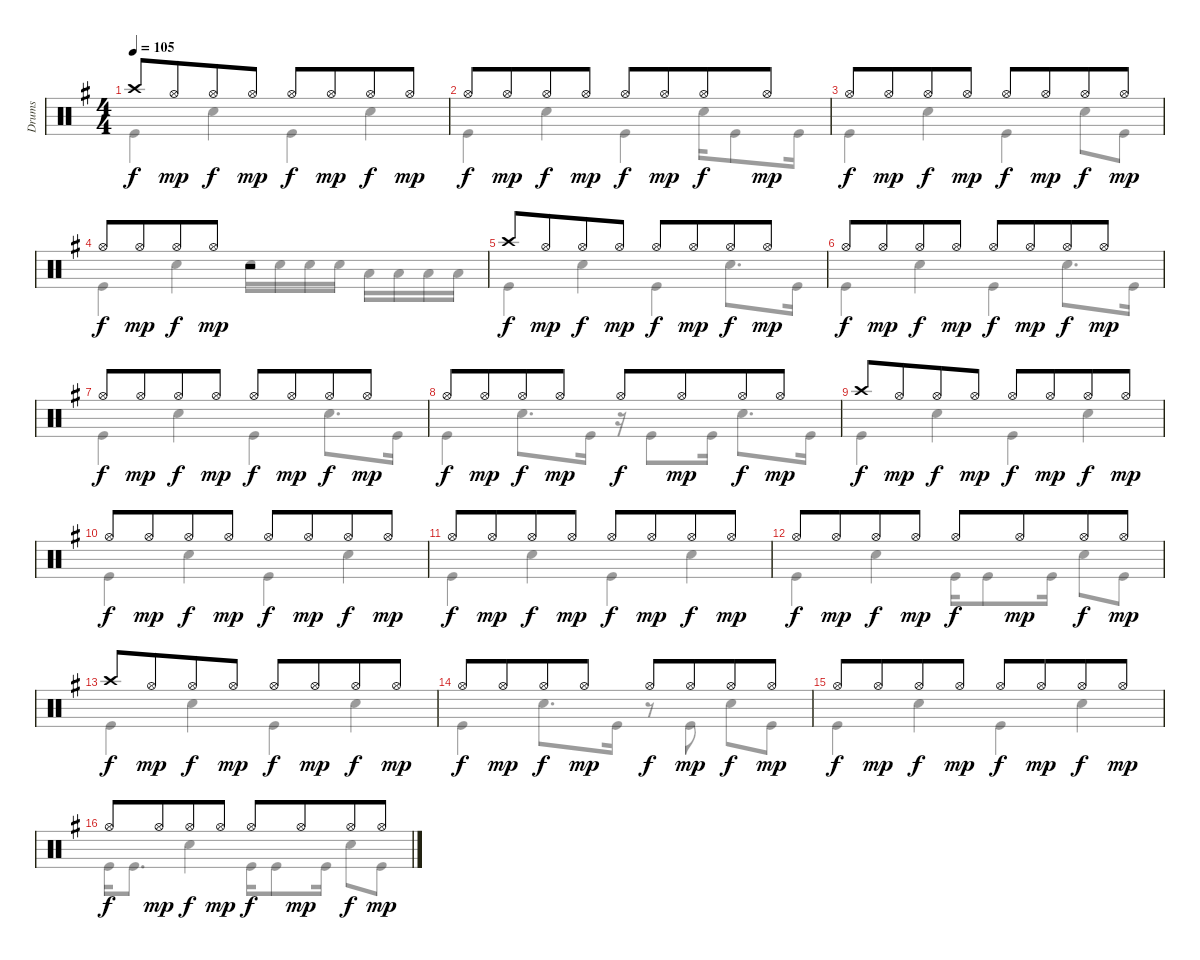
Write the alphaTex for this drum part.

\track ("Drums" "Drums") {instrument percussion}
\staff {score}
\articulation defaults
\voice
\ts (4 4)
\tempo 105
\clef neutral
\ks eminor "Crash high (hit)".8{dy f} "Hi-Hat (open)".8{dy mp beam merge} "Hi-Hat (open)".8{dy f} "Hi-Hat (open)".8{dy mp} "Hi-Hat (open)".8{dy f} "Hi-Hat (open)".8{dy mp beam merge} "Hi-Hat (open)".8{dy f} "Hi-Hat (open)".8{dy mp}
|
"Hi-Hat (open)".8{dy f} "Hi-Hat (open)".8{dy mp beam merge} "Hi-Hat (open)".8{dy f} "Hi-Hat (open)".8{dy mp} "Hi-Hat (open)".8{dy f} "Hi-Hat (open)".8{dy mp beam merge} "Hi-Hat (open)".8{dy f} "Hi-Hat (open)".8{dy mp} |
"Hi-Hat (open)".8{dy f} "Hi-Hat (open)".8{dy mp beam merge} "Hi-Hat (open)".8{dy f} "Hi-Hat (open)".8{dy mp} "Hi-Hat (open)".8{dy f} "Hi-Hat (open)".8{dy mp beam merge} "Hi-Hat (open)".8{dy f} "Hi-Hat (open)".8{dy mp} |
"Hi-Hat (open)".8{dy f} "Hi-Hat (open)".8{dy mp beam merge} "Hi-Hat (open)".8{dy f} "Hi-Hat (open)".8{dy mp} r.2 |
"Crash high (hit)".8{dy f} "Hi-Hat (open)".8{dy mp beam merge} "Hi-Hat (open)".8{dy f} "Hi-Hat (open)".8{dy mp} "Hi-Hat (open)".8{dy f} "Hi-Hat (open)".8{dy mp beam merge} "Hi-Hat (open)".8{dy f} "Hi-Hat (open)".8{dy mp} |
"Hi-Hat (open)".8{dy f} "Hi-Hat (open)".8{dy mp beam merge} "Hi-Hat (open)".8{dy f} "Hi-Hat (open)".8{dy mp} "Hi-Hat (open)".8{dy f} "Hi-Hat (open)".8{dy mp beam merge} "Hi-Hat (open)".8{dy f} "Hi-Hat (open)".8{dy mp} |
"Hi-Hat (open)".8{dy f} "Hi-Hat (open)".8{dy mp beam merge} "Hi-Hat (open)".8{dy f} "Hi-Hat (open)".8{dy mp} "Hi-Hat (open)".8{dy f} "Hi-Hat (open)".8{dy mp beam merge} "Hi-Hat (open)".8{dy f} "Hi-Hat (open)".8{dy mp} |
"Hi-Hat (open)".8{dy f} "Hi-Hat (open)".8{dy mp beam merge} "Hi-Hat (open)".8{dy f} "Hi-Hat (open)".8{dy mp} "Hi-Hat (open)".8{dy f} "Hi-Hat (open)".8{dy mp beam merge} "Hi-Hat (open)".8{dy f} "Hi-Hat (open)".8{dy mp} |
"Crash high (hit)".8{dy f} "Hi-Hat (open)".8{dy mp beam merge} "Hi-Hat (open)".8{dy f} "Hi-Hat (open)".8{dy mp} "Hi-Hat (open)".8{dy f} "Hi-Hat (open)".8{dy mp beam merge} "Hi-Hat (open)".8{dy f} "Hi-Hat (open)".8{dy mp} |
"Hi-Hat (open)".8{dy f} "Hi-Hat (open)".8{dy mp beam merge} "Hi-Hat (open)".8{dy f} "Hi-Hat (open)".8{dy mp} "Hi-Hat (open)".8{dy f} "Hi-Hat (open)".8{dy mp beam merge} "Hi-Hat (open)".8{dy f} "Hi-Hat (open)".8{dy mp} |
"Hi-Hat (open)".8{dy f} "Hi-Hat (open)".8{dy mp beam merge} "Hi-Hat (open)".8{dy f} "Hi-Hat (open)".8{dy mp} "Hi-Hat (open)".8{dy f} "Hi-Hat (open)".8{dy mp beam merge} "Hi-Hat (open)".8{dy f} "Hi-Hat (open)".8{dy mp} |
"Hi-Hat (open)".8{dy f} "Hi-Hat (open)".8{dy mp beam merge} "Hi-Hat (open)".8{dy f} "Hi-Hat (open)".8{dy mp} "Hi-Hat (open)".8{dy f} "Hi-Hat (open)".8{dy mp beam merge} "Hi-Hat (open)".8{dy f} "Hi-Hat (open)".8{dy mp} |
"Crash high (hit)".8{dy f} "Hi-Hat (open)".8{dy mp beam merge} "Hi-Hat (open)".8{dy f} "Hi-Hat (open)".8{dy mp} "Hi-Hat (open)".8{dy f} "Hi-Hat (open)".8{dy mp beam merge} "Hi-Hat (open)".8{dy f} "Hi-Hat (open)".8{dy mp} |
"Hi-Hat (open)".8{dy f} "Hi-Hat (open)".8{dy mp beam merge} "Hi-Hat (open)".8{dy f} "Hi-Hat (open)".8{dy mp} "Hi-Hat (open)".8{dy f} "Hi-Hat (open)".8{dy mp beam merge} "Hi-Hat (open)".8{dy f} "Hi-Hat (open)".8{dy mp} |
"Hi-Hat (open)".8{dy f} "Hi-Hat (open)".8{dy mp beam merge} "Hi-Hat (open)".8{dy f} "Hi-Hat (open)".8{dy mp} "Hi-Hat (open)".8{dy f} "Hi-Hat (open)".8{dy mp beam merge} "Hi-Hat (open)".8{dy f} "Hi-Hat (open)".8{dy mp} |
"Hi-Hat (open)".8{dy f} "Hi-Hat (open)".8{dy mp beam merge} "Hi-Hat (open)".8{dy f} "Hi-Hat (open)".8{dy mp} "Hi-Hat (open)".8{dy f} "Hi-Hat (open)".8{dy mp beam merge} "Hi-Hat (open)".8{dy f} "Hi-Hat (open)".8{dy mp}
\voice
\clef neutral
\ottava regular
\simile none
\ks eminor "Kick (hit)".4{dy f} "Snare (hit) 2".4 "Kick (hit)".4 "Snare (hit) 2".4
|
"Kick (hit)".4 "Snare (hit) 2".4 "Kick (hit)".4 "Snare (hit) 2".16 "Kick (hit)".8 "Kick (hit)".16 |
"Kick (hit)".4 "Snare (hit) 2".4 "Kick (hit)".4 "Snare (hit) 2".8 "Kick (hit)".8 |
"Kick (hit)".4 "Snare (hit) 2".4 "Snare (hit) 2".16 "Snare (hit) 2".16 "Snare (hit) 2".16 "Snare (hit) 2".16 "Low Tom (hit)".16 "Low Tom (hit)".16 "Low Tom (hit)".16 "Low Tom (hit)".16 |
"Kick (hit)".4 "Snare (hit) 2".4 "Kick (hit)".4 "Snare (hit) 2".8{d} "Kick (hit)".16 |
"Kick (hit)".4 "Snare (hit) 2".4 "Kick (hit)".4 "Snare (hit) 2".8{d} "Kick (hit)".16 |
"Kick (hit)".4 "Snare (hit) 2".4 "Kick (hit)".4 "Snare (hit) 2".8{d} "Kick (hit)".16 |
"Kick (hit)".4 "Snare (hit) 2".8{d} "Kick (hit)".16 r.16 "Kick (hit)".8 "Kick (hit)".16 "Snare (hit) 2".8{d} "Kick (hit)".16 |
"Kick (hit)".4 "Snare (hit) 2".4 "Kick (hit)".4 "Snare (hit) 2".4 |
"Kick (hit)".4 "Snare (hit) 2".4 "Kick (hit)".4 "Snare (hit) 2".4 |
"Kick (hit)".4 "Snare (hit) 2".4 "Kick (hit)".4 "Snare (hit) 2".4 |
"Kick (hit)".4 "Snare (hit) 2".4 "Kick (hit)".16 "Kick (hit)".8 "Kick (hit)".16 "Snare (hit) 2".8 "Kick (hit)".8 |
"Kick (hit)".4 "Snare (hit) 2".4 "Kick (hit)".4 "Snare (hit) 2".4 |
"Kick (hit)".4 "Snare (hit) 2".8{d} "Kick (hit)".16 r.8 "Kick (hit)".8 "Snare (hit) 2".8 "Kick (hit)".8 |
"Kick (hit)".4 "Snare (hit) 2".4 "Kick (hit)".4 "Snare (hit) 2".4 |
"Kick (hit)".16 "Kick (hit)".8{d} "Snare (hit) 2".4 "Kick (hit)".16 "Kick (hit)".8 "Kick (hit)".16 "Snare (hit) 2".8 "Kick (hit)".8
